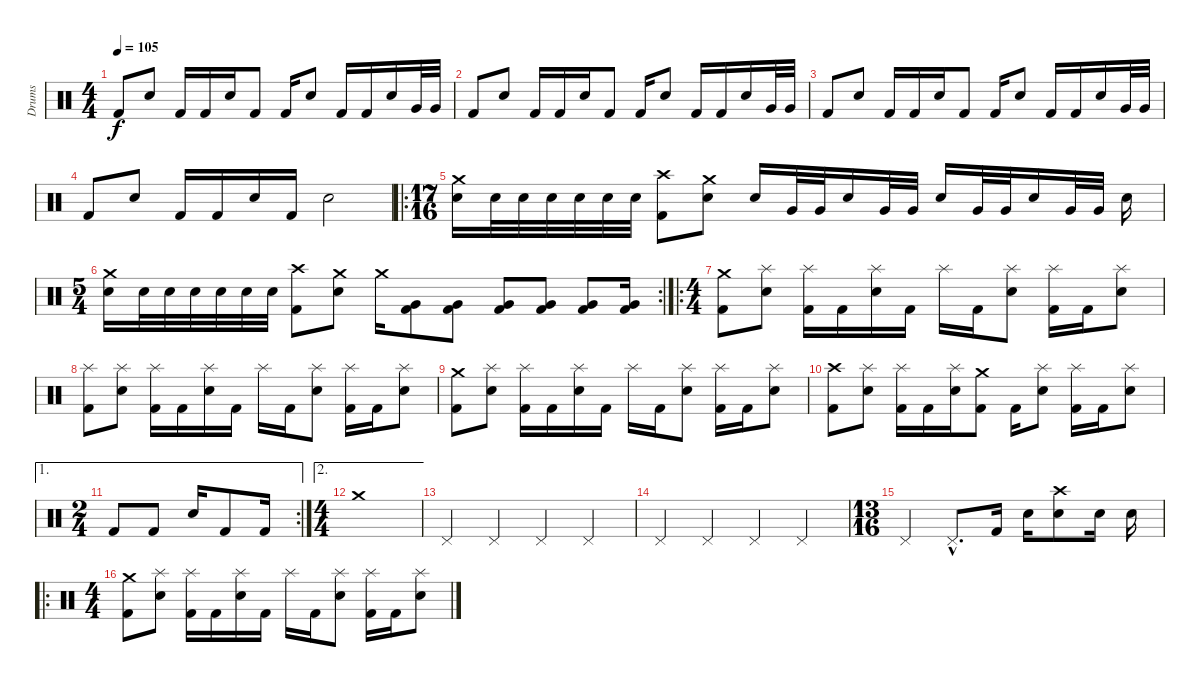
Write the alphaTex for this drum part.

\track ("Drums" "Drums") {instrument percussion}
\staff {score}
\articulation defaults
\ts (4 4)
\tempo 105
\clef neutral
\ks c "Kick (hit) 2".8{dy f} "Electric Snare (hit)".8 "Kick (hit) 2".16 "Kick (hit) 2".16 "Electric Snare (hit)".16 "Kick (hit) 2".8 "Kick (hit) 2".16 "Electric Snare (hit)".8 "Kick (hit) 2".16 "Kick (hit) 2".16 "Electric Snare (hit)".16 "Very Low Tom (hit)".32 "Very Low Tom (hit)".32
|
"Kick (hit) 2".8 "Electric Snare (hit)".8 "Kick (hit) 2".16 "Kick (hit) 2".16 "Electric Snare (hit)".16 "Kick (hit) 2".8 "Kick (hit) 2".16 "Electric Snare (hit)".8 "Kick (hit) 2".16 "Kick (hit) 2".16 "Electric Snare (hit)".16 "Very Low Tom (hit)".32 "Very Low Tom (hit)".32 |
"Kick (hit) 2".8 "Electric Snare (hit)".8 "Kick (hit) 2".16 "Kick (hit) 2".16 "Electric Snare (hit)".16 "Kick (hit) 2".8 "Kick (hit) 2".16 "Electric Snare (hit)".8 "Kick (hit) 2".16 "Kick (hit) 2".16 "Electric Snare (hit)".16 "Very Low Tom (hit)".32 "Very Low Tom (hit)".32 |
"Kick (hit) 2".8 "Electric Snare (hit)".8 "Kick (hit) 2".16 "Kick (hit) 2".16 "Electric Snare (hit)".16 "Kick (hit) 2".16 "Electric Snare (hit)".2 |
\ro
\ts (17 16)
("Crash medium (hit)" "Electric Snare (hit)").16 "Electric Snare (hit)".32 "Electric Snare (hit)".32 "Electric Snare (hit)".32 "Electric Snare (hit)".32 "Electric Snare (hit)".32 "Electric Snare (hit)".32 ("Crash high (hit)" "Kick (hit) 2").8 ("Crash medium (hit)" "Electric Snare (hit)").8 "Electric Snare (hit)".16 "Very Low Tom (hit)".32 "Very Low Tom (hit)".32 "Electric Snare (hit)".16 "Very Low Tom (hit)".32 "Very Low Tom (hit)".32 "Electric Snare (hit)".16 "Very Low Tom (hit)".32 "Very Low Tom (hit)".32 "Electric Snare (hit)".16 "Very Low Tom (hit)".32 "Very Low Tom (hit)".32 "Electric Snare (hit)".16 |
\rc 2
\ts (5 4)
("Crash medium (hit)" "Electric Snare (hit)").16 "Electric Snare (hit)".32 "Electric Snare (hit)".32 "Electric Snare (hit)".32 "Electric Snare (hit)".32 "Electric Snare (hit)".32 "Electric Snare (hit)".32 ("Crash high (hit)" "Kick (hit) 2").8 ("Crash medium (hit)" "Electric Snare (hit)").8 "Crash medium (hit)".16 ("Very Low Tom (hit)" "Kick (hit) 2").8 ("Very Low Tom (hit)" "Kick (hit) 2").8 ("Very Low Tom (hit)" "Kick (hit) 2").8 ("Very Low Tom (hit)" "Kick (hit) 2").8 ("Very Low Tom (hit)" "Kick (hit) 2").8 ("Very Low Tom (hit)" "Kick (hit) 2").16 |
\ro
\ts (4 4)
("Crash medium (hit)" "Kick (hit) 2").8 ("Splash (hit)" "Electric Snare (hit)").8 ("Splash (hit)" "Kick (hit) 2").16 "Kick (hit) 2".16 ("Splash (hit)" "Electric Snare (hit)").16 "Kick (hit) 2".16 "Splash (hit)".16 "Kick (hit) 2".16 ("Splash (hit)" "Electric Snare (hit)").8 ("Splash (hit)" "Kick (hit) 2").16 "Kick (hit) 2".16 ("Splash (hit)" "Electric Snare (hit)").8 |
("Splash (hit)" "Kick (hit) 2").8 ("Splash (hit)" "Electric Snare (hit)").8 ("Splash (hit)" "Kick (hit) 2").16 "Kick (hit) 2".16 ("Splash (hit)" "Electric Snare (hit)").16 "Kick (hit) 2".16 "Splash (hit)".16 "Kick (hit) 2".16 ("Splash (hit)" "Electric Snare (hit)").8 ("Splash (hit)" "Kick (hit) 2").16 "Kick (hit) 2".16 ("Splash (hit)" "Electric Snare (hit)").8 |
("Crash medium (hit)" "Kick (hit) 2").8 ("Splash (hit)" "Electric Snare (hit)").8 ("Splash (hit)" "Kick (hit) 2").16 "Kick (hit) 2".16 ("Splash (hit)" "Electric Snare (hit)").16 "Kick (hit) 2".16 "Splash (hit)".16 "Kick (hit) 2".16 ("Splash (hit)" "Electric Snare (hit)").8 ("Splash (hit)" "Kick (hit) 2").16 "Kick (hit) 2".16 ("Splash (hit)" "Electric Snare (hit)").8 |
("Crash high (hit)" "Kick (hit) 2").8 ("Splash (hit)" "Electric Snare (hit)").8 ("Splash (hit)" "Kick (hit) 2").16 "Kick (hit) 2".16 ("Splash (hit)" "Electric Snare (hit)").16 ("Crash medium (hit)" "Kick (hit) 2").8 "Kick (hit) 2".16 ("Splash (hit)" "Electric Snare (hit)").8 ("Splash (hit)" "Kick (hit) 2").16 "Kick (hit) 2".16 ("Splash (hit)" "Electric Snare (hit)").8 |
\ae 1
\rc 2
\ts (2 4)
"Kick (hit) 2".8 "Kick (hit) 2".8 "Electric Snare (hit)".16 "Kick (hit) 2".8 "Kick (hit) 2".16 |
\ae 2
\ts (4 4)
"Crash medium (hit)".1 |
"Pedal Hi-Hat (hit)".4 "Pedal Hi-Hat (hit)".4 "Pedal Hi-Hat (hit)".4 "Pedal Hi-Hat (hit)".4 |
"Pedal Hi-Hat (hit)".4 "Pedal Hi-Hat (hit)".4 "Pedal Hi-Hat (hit)".4 "Pedal Hi-Hat (hit)".4 |
\ts (13 16)
"Pedal Hi-Hat (hit)".4 "Pedal Hi-Hat (hit)"{hac}.8{d} "Kick (hit) 2".16 "Electric Snare (hit)".16 ("Crash high (hit)" "Electric Snare (hit)").8 "Electric Snare (hit)".16 "Electric Snare (hit)".16 |
\ro
\ts (4 4)
("Crash medium (hit)" "Kick (hit) 2").8 ("Splash (hit)" "Electric Snare (hit)").8 ("Splash (hit)" "Kick (hit) 2").16 "Kick (hit) 2".16 ("Splash (hit)" "Electric Snare (hit)").16 "Kick (hit) 2".16 "Splash (hit)".16 "Kick (hit) 2".16 ("Splash (hit)" "Electric Snare (hit)").8 ("Splash (hit)" "Kick (hit) 2").16 "Kick (hit) 2".16 ("Splash (hit)" "Electric Snare (hit)").8
